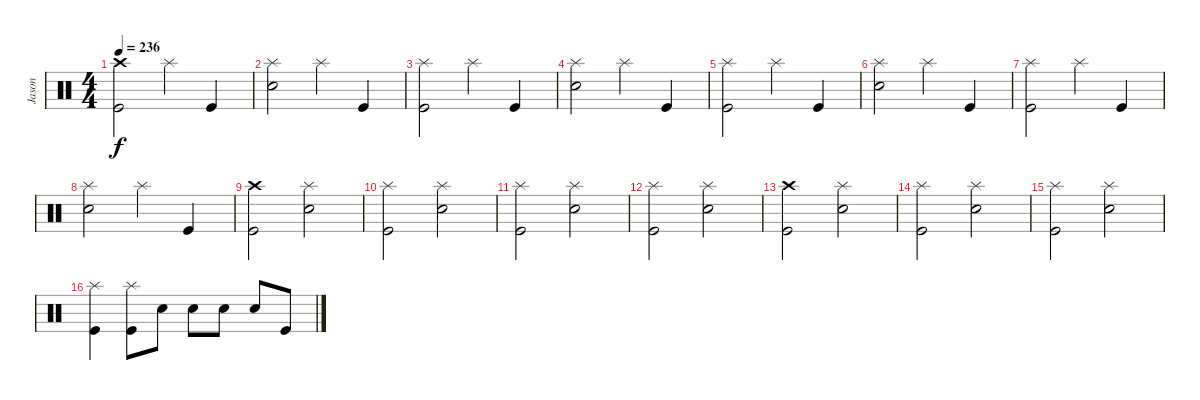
\track ("Jason" "Jason") {instrument percussion}
\staff {score}
\articulation defaults
\ts (4 4)
\tempo 236
\clef neutral
\ks c
("Crash high (hit)" "Kick (hit)").2{dy f} "Splash (hit)".4 "Kick (hit)".4 |
("Splash (hit)" "Electric Snare (hit)").2 "Splash (hit)".4 "Kick (hit)".4 |
("Splash (hit)" "Kick (hit)").2 "Splash (hit)".4 "Kick (hit)".4 |
("Splash (hit)" "Electric Snare (hit)").2 "Splash (hit)".4 "Kick (hit)".4 |
("Splash (hit)" "Kick (hit)").2 "Splash (hit)".4 "Kick (hit)".4 |
("Splash (hit)" "Electric Snare (hit)").2 "Splash (hit)".4 "Kick (hit)".4 |
("Splash (hit)" "Kick (hit)").2 "Splash (hit)".4 "Kick (hit)".4 |
("Splash (hit)" "Electric Snare (hit)").2 "Splash (hit)".4 "Kick (hit)".4 |
("Crash high (hit)" "Kick (hit)").2 ("Splash (hit)" "Electric Snare (hit)").2 |
("Splash (hit)" "Kick (hit)").2 ("Splash (hit)" "Electric Snare (hit)").2 |
("Splash (hit)" "Kick (hit)").2 ("Splash (hit)" "Electric Snare (hit)").2 |
("Splash (hit)" "Kick (hit)").2 ("Splash (hit)" "Electric Snare (hit)").2 |
("Crash high (hit)" "Kick (hit)").2 ("Splash (hit)" "Electric Snare (hit)").2 |
("Splash (hit)" "Kick (hit)").2 ("Splash (hit)" "Electric Snare (hit)").2 |
("Splash (hit)" "Kick (hit)").2 ("Splash (hit)" "Electric Snare (hit)").2 |
("Splash (hit)" "Kick (hit)").4 ("Splash (hit)" "Kick (hit)").8 "Electric Snare (hit)".8 "Electric Snare (hit)".8 "Electric Snare (hit)".8 "Electric Snare (hit)".8 "Kick (hit)".8
